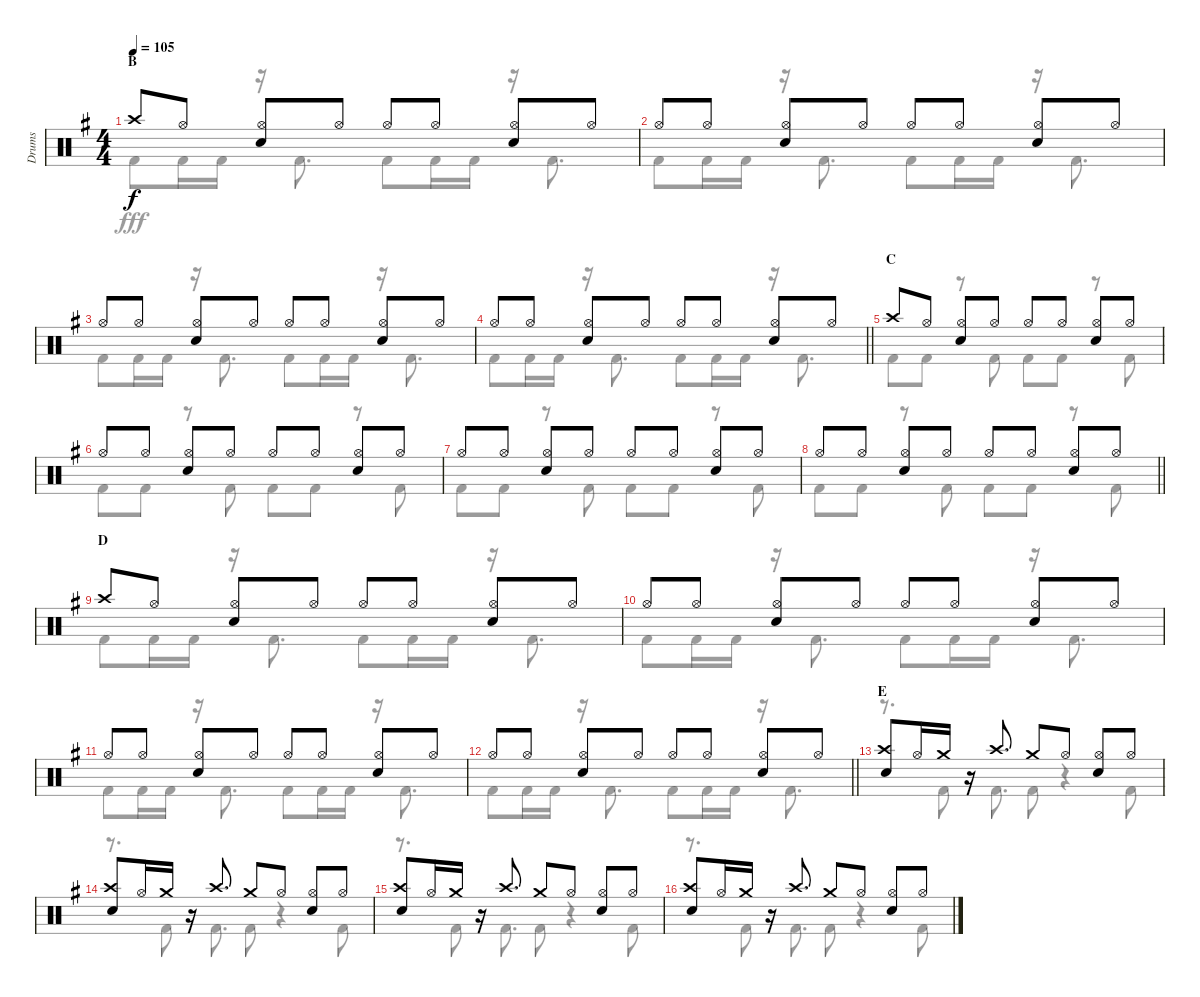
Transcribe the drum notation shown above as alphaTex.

\track ("Drums" "Drums") {instrument percussion}
\staff {score}
\articulation defaults
\voice
\ts (4 4)
\section ("" "B")
\tempo 105
\clef neutral
\ks g "Crash high (hit)".8{dy f} "Hi-Hat (open)".8
("Hi-Hat (open)" "Snare (hit) 2").8 "Hi-Hat (open)".8 "Hi-Hat (open)".8 "Hi-Hat (open)".8 ("Hi-Hat (open)" "Snare (hit) 2").8 "Hi-Hat (open)".8 |
"Hi-Hat (open)".8 "Hi-Hat (open)".8 ("Hi-Hat (open)" "Snare (hit) 2").8 "Hi-Hat (open)".8 "Hi-Hat (open)".8 "Hi-Hat (open)".8 ("Hi-Hat (open)" "Snare (hit) 2").8 "Hi-Hat (open)".8 |
"Hi-Hat (open)".8 "Hi-Hat (open)".8 ("Hi-Hat (open)" "Snare (hit) 2").8 "Hi-Hat (open)".8 "Hi-Hat (open)".8 "Hi-Hat (open)".8 ("Hi-Hat (open)" "Snare (hit) 2").8 "Hi-Hat (open)".8 |
\barLineRight lightlight "Hi-Hat (open)".8 "Hi-Hat (open)".8
("Hi-Hat (open)" "Snare (hit) 2").8 "Hi-Hat (open)".8 "Hi-Hat (open)".8 "Hi-Hat (open)".8 ("Hi-Hat (open)" "Snare (hit) 2").8 "Hi-Hat (open)".8 |
\section ("" "C")
"Crash high (hit)".8 "Hi-Hat (open)".8 ("Hi-Hat (open)" "Snare (hit) 2").8 "Hi-Hat (open)".8 "Hi-Hat (open)".8 "Hi-Hat (open)".8 ("Hi-Hat (open)" "Snare (hit) 2").8 "Hi-Hat (open)".8 |
"Hi-Hat (open)".8 "Hi-Hat (open)".8 ("Hi-Hat (open)" "Snare (hit) 2").8 "Hi-Hat (open)".8 "Hi-Hat (open)".8 "Hi-Hat (open)".8 ("Hi-Hat (open)" "Snare (hit) 2").8 "Hi-Hat (open)".8 |
"Hi-Hat (open)".8 "Hi-Hat (open)".8 ("Hi-Hat (open)" "Snare (hit) 2").8 "Hi-Hat (open)".8 "Hi-Hat (open)".8 "Hi-Hat (open)".8 ("Hi-Hat (open)" "Snare (hit) 2").8 "Hi-Hat (open)".8 |
\barLineRight lightlight "Hi-Hat (open)".8 "Hi-Hat (open)".8
("Hi-Hat (open)" "Snare (hit) 2").8 "Hi-Hat (open)".8 "Hi-Hat (open)".8 "Hi-Hat (open)".8 ("Hi-Hat (open)" "Snare (hit) 2").8 "Hi-Hat (open)".8 |
\section ("" "D")
"Crash high (hit)".8 "Hi-Hat (open)".8 ("Hi-Hat (open)" "Snare (hit) 2").8 "Hi-Hat (open)".8 "Hi-Hat (open)".8 "Hi-Hat (open)".8 ("Hi-Hat (open)" "Snare (hit) 2").8 "Hi-Hat (open)".8 |
"Hi-Hat (open)".8 "Hi-Hat (open)".8 ("Hi-Hat (open)" "Snare (hit) 2").8 "Hi-Hat (open)".8 "Hi-Hat (open)".8 "Hi-Hat (open)".8 ("Hi-Hat (open)" "Snare (hit) 2").8 "Hi-Hat (open)".8 |
"Hi-Hat (open)".8 "Hi-Hat (open)".8 ("Hi-Hat (open)" "Snare (hit) 2").8 "Hi-Hat (open)".8 "Hi-Hat (open)".8 "Hi-Hat (open)".8 ("Hi-Hat (open)" "Snare (hit) 2").8 "Hi-Hat (open)".8 |
\barLineRight lightlight "Hi-Hat (open)".8 "Hi-Hat (open)".8
("Hi-Hat (open)" "Snare (hit) 2").8 "Hi-Hat (open)".8 "Hi-Hat (open)".8 "Hi-Hat (open)".8 ("Hi-Hat (open)" "Snare (hit) 2").8 "Hi-Hat (open)".8 |
\section ("" "E")
("Crash high (hit)" "Snare (hit) 2").8 "Hi-Hat (open)".16 "Crash medium (hit)".16 r.16 "Crash high (hit)".8{d} "Crash medium (hit)".8 "Hi-Hat (open)".8 ("Hi-Hat (open)" "Snare (hit) 2").8 "Hi-Hat (open)".8 |
("Crash high (hit)" "Snare (hit) 2").8 "Hi-Hat (open)".16 "Crash medium (hit)".16 r.16 "Crash high (hit)".8{d} "Crash medium (hit)".8 "Hi-Hat (open)".8 ("Hi-Hat (open)" "Snare (hit) 2").8 "Hi-Hat (open)".8 |
("Crash high (hit)" "Snare (hit) 2").8 "Hi-Hat (open)".16 "Crash medium (hit)".16 r.16 "Crash high (hit)".8{d} "Crash medium (hit)".8 "Hi-Hat (open)".8 ("Hi-Hat (open)" "Snare (hit) 2").8 "Hi-Hat (open)".8 |
("Crash high (hit)" "Snare (hit) 2").8 "Hi-Hat (open)".16 "Crash medium (hit)".16 r.16 "Crash high (hit)".8{d} "Crash medium (hit)".8 "Hi-Hat (open)".8 ("Hi-Hat (open)" "Snare (hit) 2").8 "Hi-Hat (open)".8
\voice
\clef neutral
\ottava regular
\simile none
\ks g "Kick (hit) 2".8{dy fff} "Kick (hit) 2".16 "Kick (hit) 2".16
r.16 "Kick (hit) 2".8{d} "Kick (hit) 2".8 "Kick (hit) 2".16 "Kick (hit) 2".16 r.16 "Kick (hit) 2".8{d} |
"Kick (hit) 2".8 "Kick (hit) 2".16 "Kick (hit) 2".16 r.16 "Kick (hit) 2".8{d} "Kick (hit) 2".8 "Kick (hit) 2".16 "Kick (hit) 2".16 r.16 "Kick (hit) 2".8{d} |
"Kick (hit) 2".8 "Kick (hit) 2".16 "Kick (hit) 2".16 r.16 "Kick (hit) 2".8{d} "Kick (hit) 2".8 "Kick (hit) 2".16 "Kick (hit) 2".16 r.16 "Kick (hit) 2".8{d} |
\barLineRight lightlight "Kick (hit) 2".8 "Kick (hit) 2".16 "Kick (hit) 2".16
r.16 "Kick (hit) 2".8{d} "Kick (hit) 2".8 "Kick (hit) 2".16 "Kick (hit) 2".16 r.16 "Kick (hit) 2".8{d} |
"Kick (hit) 2".8 "Kick (hit) 2".8 r.8 "Kick (hit) 2".8 "Kick (hit) 2".8 "Kick (hit) 2".8 r.8 "Kick (hit) 2".8 |
"Kick (hit) 2".8 "Kick (hit) 2".8 r.8 "Kick (hit) 2".8 "Kick (hit) 2".8 "Kick (hit) 2".8 r.8 "Kick (hit) 2".8 |
"Kick (hit) 2".8 "Kick (hit) 2".8 r.8 "Kick (hit) 2".8 "Kick (hit) 2".8 "Kick (hit) 2".8 r.8 "Kick (hit) 2".8 |
\barLineRight lightlight "Kick (hit) 2".8 "Kick (hit) 2".8
r.8 "Kick (hit) 2".8 "Kick (hit) 2".8 "Kick (hit) 2".8 r.8 "Kick (hit) 2".8 |
"Kick (hit) 2".8 "Kick (hit) 2".16 "Kick (hit) 2".16 r.16 "Kick (hit) 2".8{d} "Kick (hit) 2".8 "Kick (hit) 2".16 "Kick (hit) 2".16 r.16 "Kick (hit) 2".8{d} |
"Kick (hit) 2".8 "Kick (hit) 2".16 "Kick (hit) 2".16 r.16 "Kick (hit) 2".8{d} "Kick (hit) 2".8 "Kick (hit) 2".16 "Kick (hit) 2".16 r.16 "Kick (hit) 2".8{d} |
"Kick (hit) 2".8 "Kick (hit) 2".16 "Kick (hit) 2".16 r.16 "Kick (hit) 2".8{d} "Kick (hit) 2".8 "Kick (hit) 2".16 "Kick (hit) 2".16 r.16 "Kick (hit) 2".8{d} |
\barLineRight lightlight "Kick (hit) 2".8 "Kick (hit) 2".16 "Kick (hit) 2".16
r.16 "Kick (hit) 2".8{d} "Kick (hit) 2".8 "Kick (hit) 2".16 "Kick (hit) 2".16 r.16 "Kick (hit) 2".8{d} |
r.8{d} "Kick (hit) 2".8 "Kick (hit) 2".8{d} "Kick (hit) 2".8 r.4 "Kick (hit) 2".8 |
r.8{d} "Kick (hit) 2".8 "Kick (hit) 2".8{d} "Kick (hit) 2".8 r.4 "Kick (hit) 2".8 |
r.8{d} "Kick (hit) 2".8 "Kick (hit) 2".8{d} "Kick (hit) 2".8 r.4 "Kick (hit) 2".8 |
r.8{d} "Kick (hit) 2".8 "Kick (hit) 2".8{d} "Kick (hit) 2".8 r.4 "Kick (hit) 2".8
